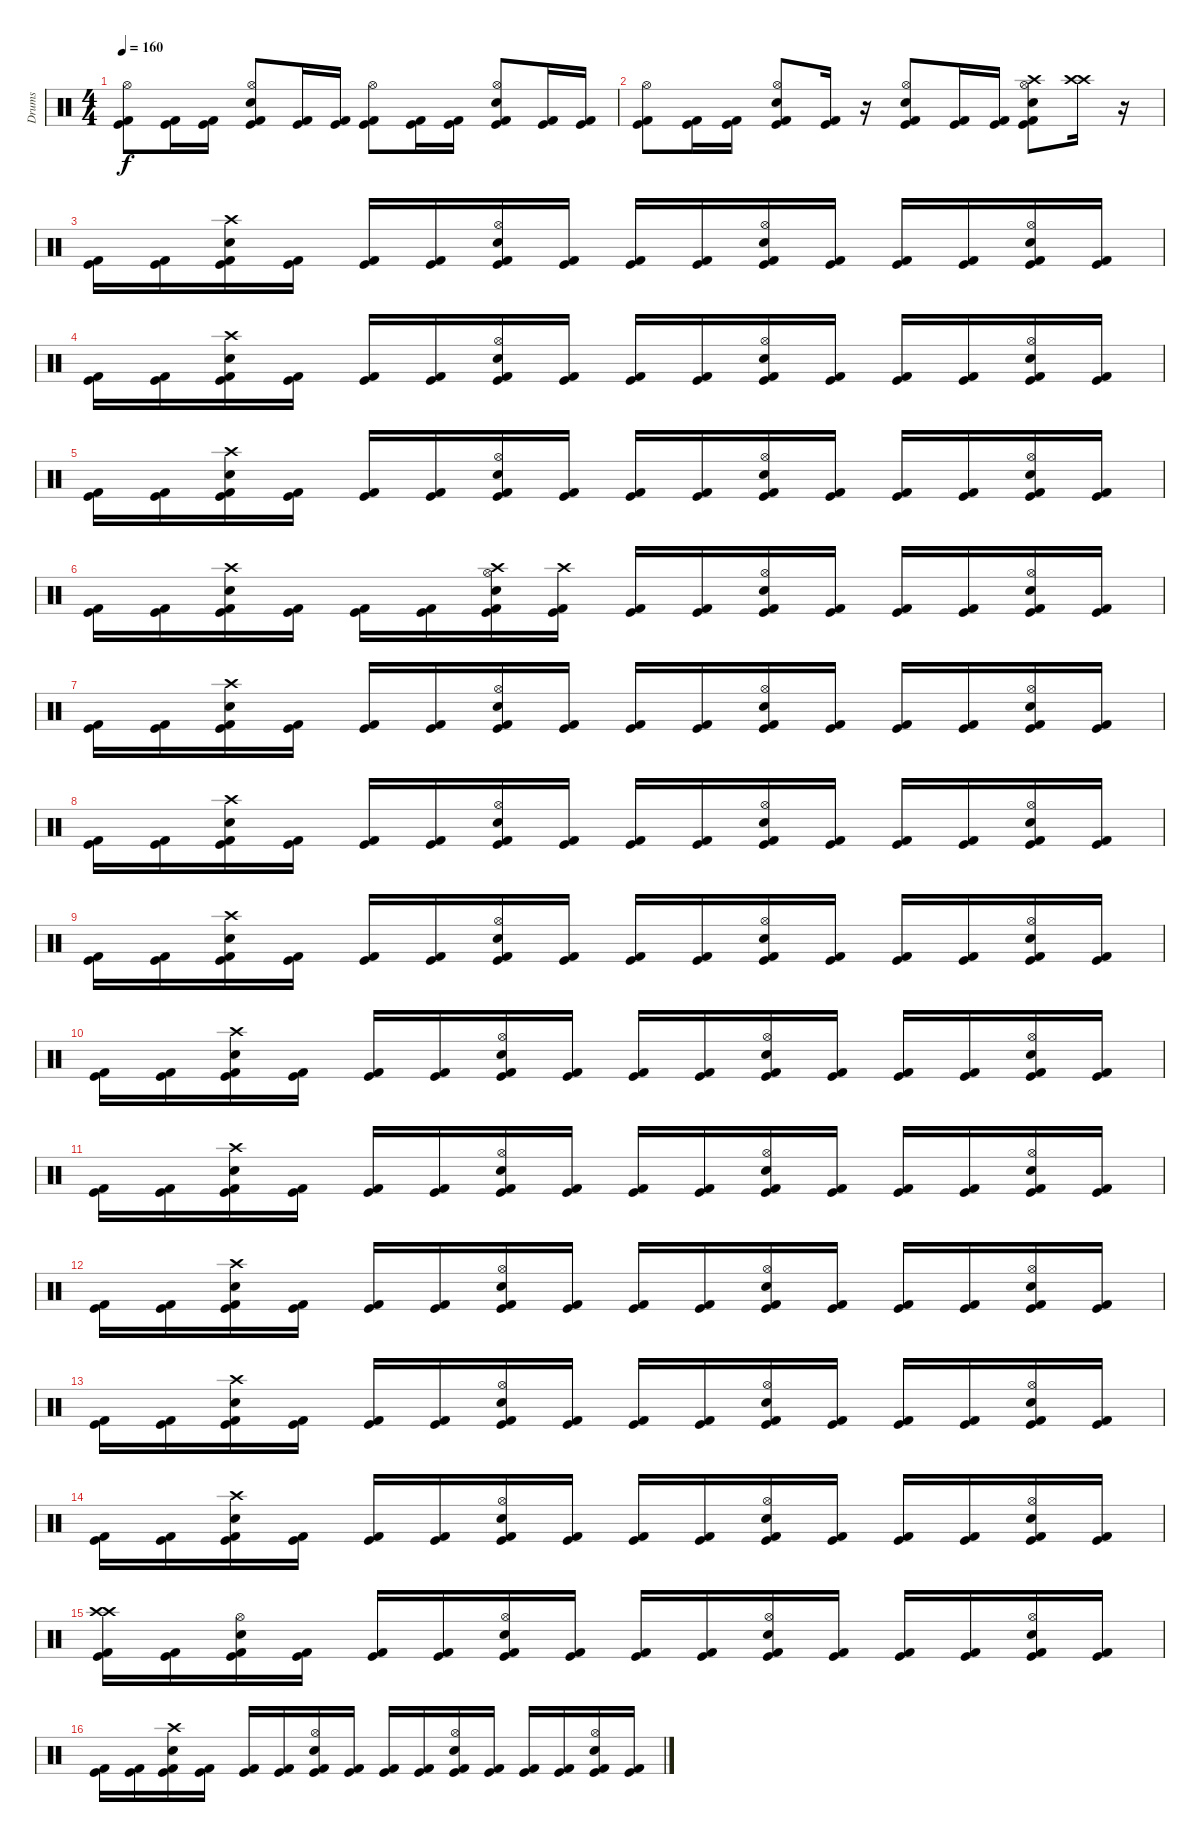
\track ("Drums" "Drums") {instrument percussion}
\staff {score}
\articulation defaults
\ts (4 4)
\tempo 160
\clef neutral
\ks c
("Kick (hit) 2" "Kick (hit)" "Hi-Hat (open)").8{dy f} ("Kick (hit) 2" "Kick (hit)").16 ("Kick (hit) 2" "Kick (hit)").16 ("Kick (hit) 2" "Kick (hit)" "Snare (hit) 2" "Hi-Hat (open)").8 ("Kick (hit) 2" "Kick (hit)").16 ("Kick (hit) 2" "Kick (hit)").16 ("Kick (hit) 2" "Kick (hit)" "Hi-Hat (open)").8 ("Kick (hit) 2" "Kick (hit)").16 ("Kick (hit) 2" "Kick (hit)").16 ("Kick (hit) 2" "Kick (hit)" "Snare (hit) 2" "Hi-Hat (open)").8 ("Kick (hit) 2" "Kick (hit)").16 ("Kick (hit) 2" "Kick (hit)").16 |
("Kick (hit) 2" "Kick (hit)" "Hi-Hat (open)").8 ("Kick (hit) 2" "Kick (hit)").16 ("Kick (hit) 2" "Kick (hit)").16 ("Kick (hit) 2" "Kick (hit)" "Snare (hit) 2" "Hi-Hat (open)").8 ("Kick (hit) 2" "Kick (hit)").16 r.16 ("Kick (hit) 2" "Kick (hit)" "Snare (hit) 2" "Hi-Hat (open)").8 ("Kick (hit) 2" "Kick (hit)").16 ("Kick (hit) 2" "Kick (hit)").16 ("Kick (hit) 2" "Kick (hit)" "Snare (hit) 2" "Hi-Hat (open)" "Crash high (hit)").8 ("Crash high (hit)" "Crash high (hit)").16 r.16 |
("Kick (hit) 2" "Kick (hit)").16 ("Kick (hit) 2" "Kick (hit)").16 ("Kick (hit) 2" "Kick (hit)" "Crash high (hit)" "Snare (hit) 2").16 ("Kick (hit) 2" "Kick (hit)").16 ("Kick (hit) 2" "Kick (hit)").16 ("Kick (hit) 2" "Kick (hit)").16 ("Kick (hit) 2" "Kick (hit)" "Hi-Hat (open)" "Snare (hit) 2").16 ("Kick (hit) 2" "Kick (hit)").16 ("Kick (hit) 2" "Kick (hit)").16 ("Kick (hit) 2" "Kick (hit)").16 ("Kick (hit) 2" "Kick (hit)" "Hi-Hat (open)" "Snare (hit) 2").16 ("Kick (hit) 2" "Kick (hit)").16 ("Kick (hit) 2" "Kick (hit)").16 ("Kick (hit) 2" "Kick (hit)").16 ("Kick (hit) 2" "Kick (hit)" "Hi-Hat (open)" "Snare (hit) 2").16 ("Kick (hit) 2" "Kick (hit)").16 |
("Kick (hit) 2" "Kick (hit)").16 ("Kick (hit) 2" "Kick (hit)").16 ("Kick (hit) 2" "Kick (hit)" "Crash high (hit)" "Snare (hit) 2").16 ("Kick (hit) 2" "Kick (hit)").16 ("Kick (hit) 2" "Kick (hit)").16 ("Kick (hit) 2" "Kick (hit)").16 ("Kick (hit) 2" "Kick (hit)" "Hi-Hat (open)" "Snare (hit) 2").16 ("Kick (hit) 2" "Kick (hit)").16 ("Kick (hit) 2" "Kick (hit)").16 ("Kick (hit) 2" "Kick (hit)").16 ("Kick (hit) 2" "Kick (hit)" "Hi-Hat (open)" "Snare (hit) 2").16 ("Kick (hit) 2" "Kick (hit)").16 ("Kick (hit) 2" "Kick (hit)").16 ("Kick (hit) 2" "Kick (hit)").16 ("Kick (hit) 2" "Kick (hit)" "Hi-Hat (open)" "Snare (hit) 2").16 ("Kick (hit) 2" "Kick (hit)").16 |
("Kick (hit) 2" "Kick (hit)").16 ("Kick (hit) 2" "Kick (hit)").16 ("Kick (hit) 2" "Kick (hit)" "Crash high (hit)" "Snare (hit) 2").16 ("Kick (hit) 2" "Kick (hit)").16 ("Kick (hit) 2" "Kick (hit)").16 ("Kick (hit) 2" "Kick (hit)").16 ("Kick (hit) 2" "Kick (hit)" "Hi-Hat (open)" "Snare (hit) 2").16 ("Kick (hit) 2" "Kick (hit)").16 ("Kick (hit) 2" "Kick (hit)").16 ("Kick (hit) 2" "Kick (hit)").16 ("Kick (hit) 2" "Kick (hit)" "Hi-Hat (open)" "Snare (hit) 2").16 ("Kick (hit) 2" "Kick (hit)").16 ("Kick (hit) 2" "Kick (hit)").16 ("Kick (hit) 2" "Kick (hit)").16 ("Kick (hit) 2" "Kick (hit)" "Hi-Hat (open)" "Snare (hit) 2").16 ("Kick (hit) 2" "Kick (hit)").16 |
("Kick (hit) 2" "Kick (hit)").16 ("Kick (hit) 2" "Kick (hit)").16 ("Kick (hit) 2" "Kick (hit)" "Crash high (hit)" "Snare (hit) 2").16 ("Kick (hit) 2" "Kick (hit)").16 ("Kick (hit) 2" "Kick (hit)").16 ("Kick (hit) 2" "Kick (hit)").16 ("Kick (hit) 2" "Kick (hit)" "Hi-Hat (open)" "Snare (hit) 2" "Crash high (hit)").16 ("Kick (hit) 2" "Kick (hit)" "Crash high (hit)").16 ("Kick (hit) 2" "Kick (hit)").16 ("Kick (hit) 2" "Kick (hit)").16 ("Kick (hit) 2" "Kick (hit)" "Hi-Hat (open)" "Snare (hit) 2").16 ("Kick (hit) 2" "Kick (hit)").16 ("Kick (hit) 2" "Kick (hit)").16 ("Kick (hit) 2" "Kick (hit)").16 ("Kick (hit) 2" "Kick (hit)" "Hi-Hat (open)" "Snare (hit) 2").16 ("Kick (hit) 2" "Kick (hit)").16 |
("Kick (hit) 2" "Kick (hit)").16 ("Kick (hit) 2" "Kick (hit)").16 ("Kick (hit) 2" "Kick (hit)" "Crash high (hit)" "Snare (hit) 2").16 ("Kick (hit) 2" "Kick (hit)").16 ("Kick (hit) 2" "Kick (hit)").16 ("Kick (hit) 2" "Kick (hit)").16 ("Kick (hit) 2" "Kick (hit)" "Hi-Hat (open)" "Snare (hit) 2").16 ("Kick (hit) 2" "Kick (hit)").16 ("Kick (hit) 2" "Kick (hit)").16 ("Kick (hit) 2" "Kick (hit)").16 ("Kick (hit) 2" "Kick (hit)" "Hi-Hat (open)" "Snare (hit) 2").16 ("Kick (hit) 2" "Kick (hit)").16 ("Kick (hit) 2" "Kick (hit)").16 ("Kick (hit) 2" "Kick (hit)").16 ("Kick (hit) 2" "Kick (hit)" "Hi-Hat (open)" "Snare (hit) 2").16 ("Kick (hit) 2" "Kick (hit)").16 |
("Kick (hit) 2" "Kick (hit)").16 ("Kick (hit) 2" "Kick (hit)").16 ("Kick (hit) 2" "Kick (hit)" "Crash high (hit)" "Snare (hit) 2").16 ("Kick (hit) 2" "Kick (hit)").16 ("Kick (hit) 2" "Kick (hit)").16 ("Kick (hit) 2" "Kick (hit)").16 ("Kick (hit) 2" "Kick (hit)" "Hi-Hat (open)" "Snare (hit) 2").16 ("Kick (hit) 2" "Kick (hit)").16 ("Kick (hit) 2" "Kick (hit)").16 ("Kick (hit) 2" "Kick (hit)").16 ("Kick (hit) 2" "Kick (hit)" "Hi-Hat (open)" "Snare (hit) 2").16 ("Kick (hit) 2" "Kick (hit)").16 ("Kick (hit) 2" "Kick (hit)").16 ("Kick (hit) 2" "Kick (hit)").16 ("Kick (hit) 2" "Kick (hit)" "Hi-Hat (open)" "Snare (hit) 2").16 ("Kick (hit) 2" "Kick (hit)").16 |
("Kick (hit) 2" "Kick (hit)").16 ("Kick (hit) 2" "Kick (hit)").16 ("Kick (hit) 2" "Kick (hit)" "Crash high (hit)" "Snare (hit) 2").16 ("Kick (hit) 2" "Kick (hit)").16 ("Kick (hit) 2" "Kick (hit)").16 ("Kick (hit) 2" "Kick (hit)").16 ("Kick (hit) 2" "Kick (hit)" "Hi-Hat (open)" "Snare (hit) 2").16 ("Kick (hit) 2" "Kick (hit)").16 ("Kick (hit) 2" "Kick (hit)").16 ("Kick (hit) 2" "Kick (hit)").16 ("Kick (hit) 2" "Kick (hit)" "Hi-Hat (open)" "Snare (hit) 2").16 ("Kick (hit) 2" "Kick (hit)").16 ("Kick (hit) 2" "Kick (hit)").16 ("Kick (hit) 2" "Kick (hit)").16 ("Kick (hit) 2" "Kick (hit)" "Hi-Hat (open)" "Snare (hit) 2").16 ("Kick (hit) 2" "Kick (hit)").16 |
("Kick (hit) 2" "Kick (hit)").16 ("Kick (hit) 2" "Kick (hit)").16 ("Kick (hit) 2" "Kick (hit)" "Crash high (hit)" "Snare (hit) 2").16 ("Kick (hit) 2" "Kick (hit)").16 ("Kick (hit) 2" "Kick (hit)").16 ("Kick (hit) 2" "Kick (hit)").16 ("Kick (hit) 2" "Kick (hit)" "Hi-Hat (open)" "Snare (hit) 2").16 ("Kick (hit) 2" "Kick (hit)").16 ("Kick (hit) 2" "Kick (hit)").16 ("Kick (hit) 2" "Kick (hit)").16 ("Kick (hit) 2" "Kick (hit)" "Hi-Hat (open)" "Snare (hit) 2").16 ("Kick (hit) 2" "Kick (hit)").16 ("Kick (hit) 2" "Kick (hit)").16 ("Kick (hit) 2" "Kick (hit)").16 ("Kick (hit) 2" "Kick (hit)" "Hi-Hat (open)" "Snare (hit) 2").16 ("Kick (hit) 2" "Kick (hit)").16 |
("Kick (hit) 2" "Kick (hit)").16 ("Kick (hit) 2" "Kick (hit)").16 ("Kick (hit) 2" "Kick (hit)" "Crash high (hit)" "Snare (hit) 2").16 ("Kick (hit) 2" "Kick (hit)").16 ("Kick (hit) 2" "Kick (hit)").16 ("Kick (hit) 2" "Kick (hit)").16 ("Kick (hit) 2" "Kick (hit)" "Hi-Hat (open)" "Snare (hit) 2").16 ("Kick (hit) 2" "Kick (hit)").16 ("Kick (hit) 2" "Kick (hit)").16 ("Kick (hit) 2" "Kick (hit)").16 ("Kick (hit) 2" "Kick (hit)" "Hi-Hat (open)" "Snare (hit) 2").16 ("Kick (hit) 2" "Kick (hit)").16 ("Kick (hit) 2" "Kick (hit)").16 ("Kick (hit) 2" "Kick (hit)").16 ("Kick (hit) 2" "Kick (hit)" "Hi-Hat (open)" "Snare (hit) 2").16 ("Kick (hit) 2" "Kick (hit)").16 |
("Kick (hit) 2" "Kick (hit)").16 ("Kick (hit) 2" "Kick (hit)").16 ("Kick (hit) 2" "Kick (hit)" "Crash high (hit)" "Snare (hit) 2").16 ("Kick (hit) 2" "Kick (hit)").16 ("Kick (hit) 2" "Kick (hit)").16 ("Kick (hit) 2" "Kick (hit)").16 ("Kick (hit) 2" "Kick (hit)" "Hi-Hat (open)" "Snare (hit) 2").16 ("Kick (hit) 2" "Kick (hit)").16 ("Kick (hit) 2" "Kick (hit)").16 ("Kick (hit) 2" "Kick (hit)").16 ("Kick (hit) 2" "Kick (hit)" "Hi-Hat (open)" "Snare (hit) 2").16 ("Kick (hit) 2" "Kick (hit)").16 ("Kick (hit) 2" "Kick (hit)").16 ("Kick (hit) 2" "Kick (hit)").16 ("Kick (hit) 2" "Kick (hit)" "Hi-Hat (open)" "Snare (hit) 2").16 ("Kick (hit) 2" "Kick (hit)").16 |
("Kick (hit) 2" "Kick (hit)").16 ("Kick (hit) 2" "Kick (hit)").16 ("Kick (hit) 2" "Kick (hit)" "Crash high (hit)" "Snare (hit) 2").16 ("Kick (hit) 2" "Kick (hit)").16 ("Kick (hit) 2" "Kick (hit)").16 ("Kick (hit) 2" "Kick (hit)").16 ("Kick (hit) 2" "Kick (hit)" "Hi-Hat (open)" "Snare (hit) 2").16 ("Kick (hit) 2" "Kick (hit)").16 ("Kick (hit) 2" "Kick (hit)").16 ("Kick (hit) 2" "Kick (hit)").16 ("Kick (hit) 2" "Kick (hit)" "Hi-Hat (open)" "Snare (hit) 2").16 ("Kick (hit) 2" "Kick (hit)").16 ("Kick (hit) 2" "Kick (hit)").16 ("Kick (hit) 2" "Kick (hit)").16 ("Kick (hit) 2" "Kick (hit)" "Hi-Hat (open)" "Snare (hit) 2").16 ("Kick (hit) 2" "Kick (hit)").16 |
("Kick (hit) 2" "Kick (hit)").16 ("Kick (hit) 2" "Kick (hit)").16 ("Kick (hit) 2" "Kick (hit)" "Crash high (hit)" "Snare (hit) 2").16 ("Kick (hit) 2" "Kick (hit)").16 ("Kick (hit) 2" "Kick (hit)").16 ("Kick (hit) 2" "Kick (hit)").16 ("Kick (hit) 2" "Kick (hit)" "Hi-Hat (open)" "Snare (hit) 2").16 ("Kick (hit) 2" "Kick (hit)").16 ("Kick (hit) 2" "Kick (hit)").16 ("Kick (hit) 2" "Kick (hit)").16 ("Kick (hit) 2" "Kick (hit)" "Hi-Hat (open)" "Snare (hit) 2").16 ("Kick (hit) 2" "Kick (hit)").16 ("Kick (hit) 2" "Kick (hit)").16 ("Kick (hit) 2" "Kick (hit)").16 ("Kick (hit) 2" "Kick (hit)" "Hi-Hat (open)" "Snare (hit) 2").16 ("Kick (hit) 2" "Kick (hit)").16 |
("Kick (hit) 2" "Kick (hit)" "Crash high (hit)" "Crash high (hit)").16 ("Kick (hit) 2" "Kick (hit)").16 ("Kick (hit) 2" "Kick (hit)" "Hi-Hat (open)" "Snare (hit) 2").16 ("Kick (hit) 2" "Kick (hit)").16 ("Kick (hit) 2" "Kick (hit)").16 ("Kick (hit) 2" "Kick (hit)").16 ("Kick (hit) 2" "Kick (hit)" "Hi-Hat (open)" "Snare (hit) 2").16 ("Kick (hit) 2" "Kick (hit)").16 ("Kick (hit) 2" "Kick (hit)").16 ("Kick (hit) 2" "Kick (hit)").16 ("Kick (hit) 2" "Kick (hit)" "Hi-Hat (open)" "Snare (hit) 2").16 ("Kick (hit) 2" "Kick (hit)").16 ("Kick (hit) 2" "Kick (hit)").16 ("Kick (hit) 2" "Kick (hit)").16 ("Kick (hit) 2" "Kick (hit)" "Hi-Hat (open)" "Snare (hit) 2").16 ("Kick (hit) 2" "Kick (hit)").16 |
("Kick (hit) 2" "Kick (hit)").16 ("Kick (hit) 2" "Kick (hit)").16 ("Kick (hit) 2" "Kick (hit)" "Crash high (hit)" "Snare (hit) 2").16 ("Kick (hit) 2" "Kick (hit)").16 ("Kick (hit) 2" "Kick (hit)").16 ("Kick (hit) 2" "Kick (hit)").16 ("Kick (hit) 2" "Kick (hit)" "Hi-Hat (open)" "Snare (hit) 2").16 ("Kick (hit) 2" "Kick (hit)").16 ("Kick (hit) 2" "Kick (hit)").16 ("Kick (hit) 2" "Kick (hit)").16 ("Kick (hit) 2" "Kick (hit)" "Hi-Hat (open)" "Snare (hit) 2").16 ("Kick (hit) 2" "Kick (hit)").16 ("Kick (hit) 2" "Kick (hit)").16 ("Kick (hit) 2" "Kick (hit)").16 ("Kick (hit) 2" "Kick (hit)" "Hi-Hat (open)" "Snare (hit) 2").16 ("Kick (hit) 2" "Kick (hit)").16
